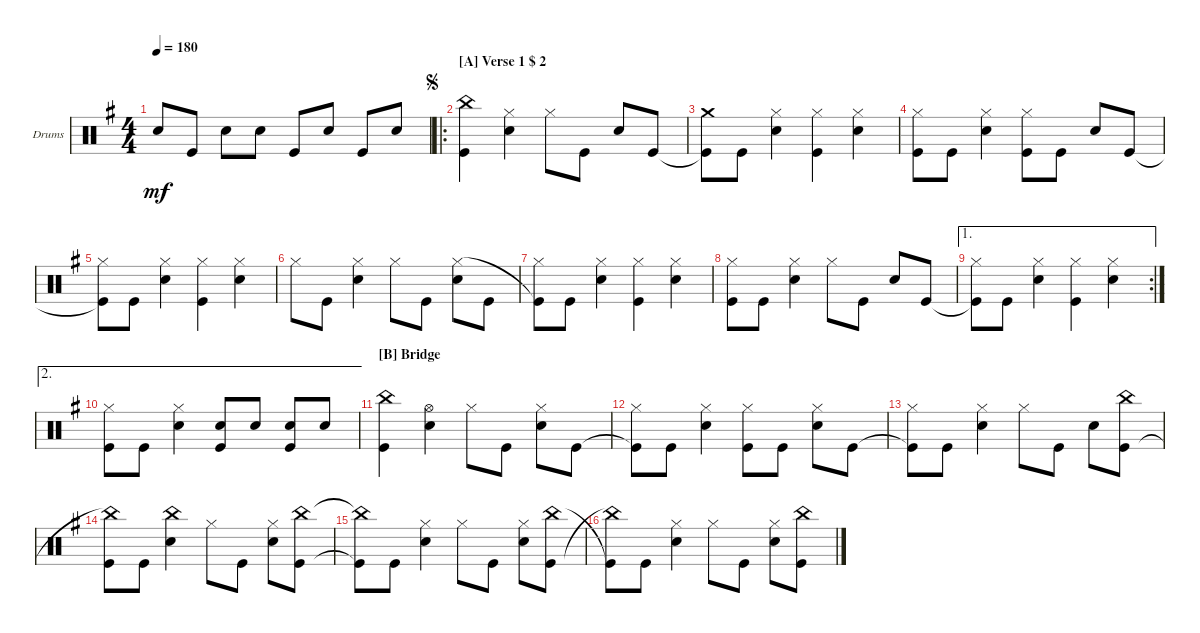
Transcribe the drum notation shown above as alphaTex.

\defaultSystemsLayout 4
\bracketExtendMode groupsimilarinstruments
\firstSystemTrackNameOrientation horizontal
\otherSystemsTrackNameOrientation horizontal
\track ("Drumkit" "Drums") {instrument percussion}
\staff {score}
\articulation defaults
\ts (4 4)
\tempo 180
\clef neutral
\scale
0.311111
\ks g "Snare (hit) 2".8{dy mf} "Kick (hit)".8 "Snare (hit) 2".8 "Snare (hit) 2".8 "Kick (hit)".8 "Snare (hit) 2".8 "Kick (hit)".8 "Snare (hit) 2".8
|
\ro
\section ("A" "Verse 1 $ 2")
\jump segno
\scale
0.377778 ("Kick (hit)" "China (hit)").4 ("Snare (hit) 2" "Hi-Hat (closed)").4 "Hi-Hat (closed)".8 "Kick (hit)".8 "Snare (hit) 2".8 "Kick (hit)".8 |
\scale
0.333333 ("Kick (hit)"{t} "Crash medium (hit)").8 "Kick (hit)".8 ("Hi-Hat (closed)" "Snare (hit) 2").4 ("Kick (hit)" "Hi-Hat (closed)").4 ("Snare (hit) 2" "Hi-Hat (closed)").4 |
\scale
0.333333 ("Hi-Hat (closed)" "Kick (hit)").8 "Kick (hit)".8 ("Snare (hit) 2" "Hi-Hat (closed)").4 ("Kick (hit)" "Hi-Hat (closed)").8 "Kick (hit)".8 "Snare (hit) 2".8 "Kick (hit)".8 |
\scale
0.333333 ("Kick (hit)"{t} "Hi-Hat (closed)").8 "Kick (hit)".8 ("Snare (hit) 2" "Hi-Hat (closed)").4 ("Kick (hit)" "Hi-Hat (closed)").4 ("Snare (hit) 2" "Hi-Hat (closed)").4 |
\scale
0.333333 "Hi-Hat (closed)".8 "Kick (hit)".8 ("Snare (hit) 2" "Hi-Hat (closed)").4 "Hi-Hat (closed)".8 "Kick (hit)".8 ("Snare (hit) 2" "Hi-Hat (closed)").8 "Kick (hit)".8 |
\scale
0.333333 ("Hi-Hat (closed)" "Kick (hit)"{t}).8 "Kick (hit)".8 ("Snare (hit) 2" "Hi-Hat (closed)").4 ("Kick (hit)" "Hi-Hat (closed)").4 ("Snare (hit) 2" "Hi-Hat (closed)").4 |
\scale
0.333333 ("Kick (hit)" "Hi-Hat (closed)").8 "Kick (hit)".8 ("Snare (hit) 2" "Hi-Hat (closed)").4 "Hi-Hat (closed)".8 "Kick (hit)".8 "Snare (hit) 2".8 "Kick (hit)".8 |
\ae 1
\rc 2
\scale
0.356322 ("Kick (hit)"{t} "Hi-Hat (closed)").8 "Kick (hit)".8 ("Snare (hit) 2" "Hi-Hat (closed)").4 ("Hi-Hat (closed)" "Kick (hit)").4 ("Snare (hit) 2" "Hi-Hat (closed)").4 |
\ae 2
\scale
0.321839 ("Kick (hit)" "Hi-Hat (closed)").8 "Kick (hit)".8 ("Snare (hit) 2" "Hi-Hat (closed)").4 ("Snare (hit) 2" "Kick (hit)").8 "Snare (hit) 2".8 ("Snare (hit) 2" "Kick (hit)").8 "Snare (hit) 2".8 |
\section ("B" "Bridge")
\scale
0.321839 ("Kick (hit)" "China (hit)").4 ("Snare (hit) 2" "Hi-Hat (open)").4 "Hi-Hat (closed)".8 "Kick (hit)".8 ("Snare (hit) 2" "Hi-Hat (closed)").8 "Kick (hit)".8 |
\scale
0.333333 ("Kick (hit)"{t} "Hi-Hat (closed)").8 "Kick (hit)".8 ("Snare (hit) 2" "Hi-Hat (closed)").4 ("Kick (hit)" "Hi-Hat (closed)").8 "Kick (hit)".8 ("Snare (hit) 2" "Hi-Hat (closed)").8 "Kick (hit)".8 |
\scale
0.333333 ("Kick (hit)"{t} "Hi-Hat (closed)").8 "Kick (hit)".8 ("Snare (hit) 2" "Hi-Hat (closed)").4 "Hi-Hat (closed)".8 "Kick (hit)".8 "Snare (hit) 2".8 ("Kick (hit)" "China (hit)").8 |
\scale
0.333333 ("China (hit)"{t} "Kick (hit)").8 "Kick (hit)".8 ("Snare (hit) 2" "China (hit)").4 "Hi-Hat (closed)".8 "Kick (hit)".8 ("Snare (hit) 2" "Hi-Hat (closed)").8 ("China (hit)" "Kick (hit)").8 |
\scale
0.333333 ("China (hit)"{t} "Kick (hit)"{t}).8 "Kick (hit)".8 ("Snare (hit) 2" "Hi-Hat (closed)").4 "Hi-Hat (closed)".8 "Kick (hit)".8 ("Snare (hit) 2" "Hi-Hat (closed)").8 ("Kick (hit)" "China (hit)").8 |
\scale
0.333333 ("China (hit)"{t} "Kick (hit)"{t}).8 "Kick (hit)".8 ("Snare (hit) 2" "Hi-Hat (closed)").4 "Hi-Hat (closed)".8 "Kick (hit)".8 ("Snare (hit) 2" "Hi-Hat (closed)").8 ("Kick (hit)" "China (hit)").8
